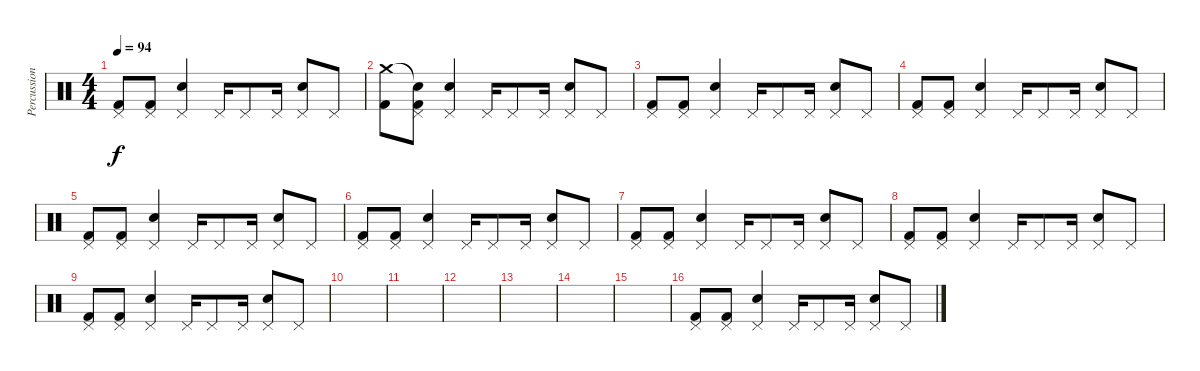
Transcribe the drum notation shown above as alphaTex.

\track ("Percussions" "Percussion") {instrument percussion}
\staff {score}
\articulation defaults
\ts (4 4)
\tempo 94
\clef neutral
\ks c
("Pedal Hi-Hat (hit)" "Kick (hit) 2").8{dy f} ("Pedal Hi-Hat (hit)" "Kick (hit) 2").8 ("Pedal Hi-Hat (hit)" "Electric Snare (hit)").4 "Pedal Hi-Hat (hit)".16 "Pedal Hi-Hat (hit)".8 "Pedal Hi-Hat (hit)".16 ("Pedal Hi-Hat (hit)" "Electric Snare (hit)").8 "Pedal Hi-Hat (hit)".8 |
("Crash medium (hit)" "Kick (hit) 2").8 ("Snare (hit)"{t} "Pedal Hi-Hat (hit)" "Kick (hit) 2").8 ("Pedal Hi-Hat (hit)" "Electric Snare (hit)").4 "Pedal Hi-Hat (hit)".16 "Pedal Hi-Hat (hit)".8 "Pedal Hi-Hat (hit)".16 ("Pedal Hi-Hat (hit)" "Electric Snare (hit)").8 "Pedal Hi-Hat (hit)".8 |
("Pedal Hi-Hat (hit)" "Kick (hit) 2").8 ("Pedal Hi-Hat (hit)" "Kick (hit) 2").8 ("Pedal Hi-Hat (hit)" "Electric Snare (hit)").4 "Pedal Hi-Hat (hit)".16 "Pedal Hi-Hat (hit)".8 "Pedal Hi-Hat (hit)".16 ("Pedal Hi-Hat (hit)" "Electric Snare (hit)").8 "Pedal Hi-Hat (hit)".8 |
("Pedal Hi-Hat (hit)" "Kick (hit) 2").8 ("Pedal Hi-Hat (hit)" "Kick (hit) 2").8 ("Pedal Hi-Hat (hit)" "Electric Snare (hit)").4 "Pedal Hi-Hat (hit)".16 "Pedal Hi-Hat (hit)".8 "Pedal Hi-Hat (hit)".16 ("Pedal Hi-Hat (hit)" "Electric Snare (hit)").8 "Pedal Hi-Hat (hit)".8 |
("Pedal Hi-Hat (hit)" "Kick (hit) 2").8 ("Pedal Hi-Hat (hit)" "Kick (hit) 2").8 ("Pedal Hi-Hat (hit)" "Electric Snare (hit)").4 "Pedal Hi-Hat (hit)".16 "Pedal Hi-Hat (hit)".8 "Pedal Hi-Hat (hit)".16 ("Pedal Hi-Hat (hit)" "Electric Snare (hit)").8 "Pedal Hi-Hat (hit)".8 |
("Pedal Hi-Hat (hit)" "Kick (hit) 2").8 ("Pedal Hi-Hat (hit)" "Kick (hit) 2").8 ("Pedal Hi-Hat (hit)" "Electric Snare (hit)").4 "Pedal Hi-Hat (hit)".16 "Pedal Hi-Hat (hit)".8 "Pedal Hi-Hat (hit)".16 ("Pedal Hi-Hat (hit)" "Electric Snare (hit)").8 "Pedal Hi-Hat (hit)".8 |
("Pedal Hi-Hat (hit)" "Kick (hit) 2").8 ("Pedal Hi-Hat (hit)" "Kick (hit) 2").8 ("Pedal Hi-Hat (hit)" "Electric Snare (hit)").4 "Pedal Hi-Hat (hit)".16 "Pedal Hi-Hat (hit)".8 "Pedal Hi-Hat (hit)".16 ("Pedal Hi-Hat (hit)" "Electric Snare (hit)").8 "Pedal Hi-Hat (hit)".8 |
("Pedal Hi-Hat (hit)" "Kick (hit) 2").8 ("Pedal Hi-Hat (hit)" "Kick (hit) 2").8 ("Pedal Hi-Hat (hit)" "Electric Snare (hit)").4 "Pedal Hi-Hat (hit)".16 "Pedal Hi-Hat (hit)".8 "Pedal Hi-Hat (hit)".16 ("Pedal Hi-Hat (hit)" "Electric Snare (hit)").8 "Pedal Hi-Hat (hit)".8 |
("Pedal Hi-Hat (hit)" "Kick (hit) 2").8 ("Pedal Hi-Hat (hit)" "Kick (hit) 2").8 ("Pedal Hi-Hat (hit)" "Electric Snare (hit)").4 "Pedal Hi-Hat (hit)".16 "Pedal Hi-Hat (hit)".8 "Pedal Hi-Hat (hit)".16 ("Pedal Hi-Hat (hit)" "Electric Snare (hit)").8 "Pedal Hi-Hat (hit)".8 |
|
|
|
|
|
|
("Pedal Hi-Hat (hit)" "Kick (hit) 2").8 ("Pedal Hi-Hat (hit)" "Kick (hit) 2").8 ("Pedal Hi-Hat (hit)" "Electric Snare (hit)").4 "Pedal Hi-Hat (hit)".16 "Pedal Hi-Hat (hit)".8 "Pedal Hi-Hat (hit)".16 ("Pedal Hi-Hat (hit)" "Electric Snare (hit)").8 "Pedal Hi-Hat (hit)".8
